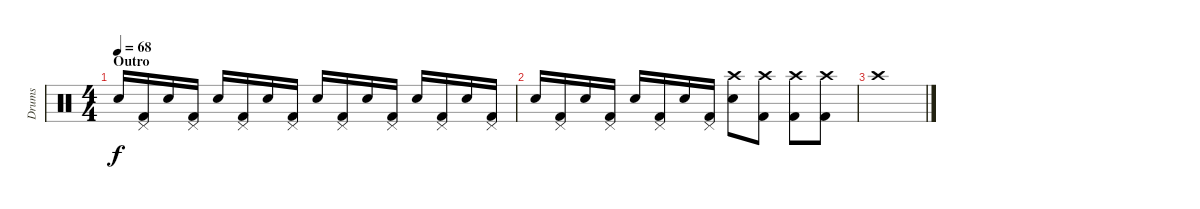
\track ("Drums" "Drums") {instrument percussion}
\staff {score}
\articulation defaults
\ts (4 4)
\section ("" "Outro")
\tempo 68
\clef neutral
\ks c "Snare (hit) 2".16{dy f}
("Pedal Hi-Hat (hit)" "Kick (hit) 2").16 "Snare (hit) 2".16 ("Pedal Hi-Hat (hit)" "Kick (hit) 2").16 "Snare (hit) 2".16 ("Pedal Hi-Hat (hit)" "Kick (hit) 2").16 "Snare (hit) 2".16 ("Pedal Hi-Hat (hit)" "Kick (hit) 2").16 "Snare (hit) 2".16 ("Pedal Hi-Hat (hit)" "Kick (hit) 2").16 "Snare (hit) 2".16 ("Pedal Hi-Hat (hit)" "Kick (hit) 2").16 "Snare (hit) 2".16 ("Pedal Hi-Hat (hit)" "Kick (hit) 2").16 "Snare (hit) 2".16 ("Pedal Hi-Hat (hit)" "Kick (hit) 2").16 |
"Snare (hit) 2".16 ("Pedal Hi-Hat (hit)" "Kick (hit) 2").16 "Snare (hit) 2".16 ("Pedal Hi-Hat (hit)" "Kick (hit) 2").16 "Snare (hit) 2".16 ("Pedal Hi-Hat (hit)" "Kick (hit) 2").16 "Snare (hit) 2".16 ("Pedal Hi-Hat (hit)" "Kick (hit) 2").16 ("Snare (hit) 2" "Crash high (hit)").8 ("Kick (hit) 2" "Crash high (hit)").8 ("Kick (hit) 2" "Crash high (hit)").8 ("Kick (hit) 2" "Crash high (hit)").8 |
"Crash high (hit)".1
